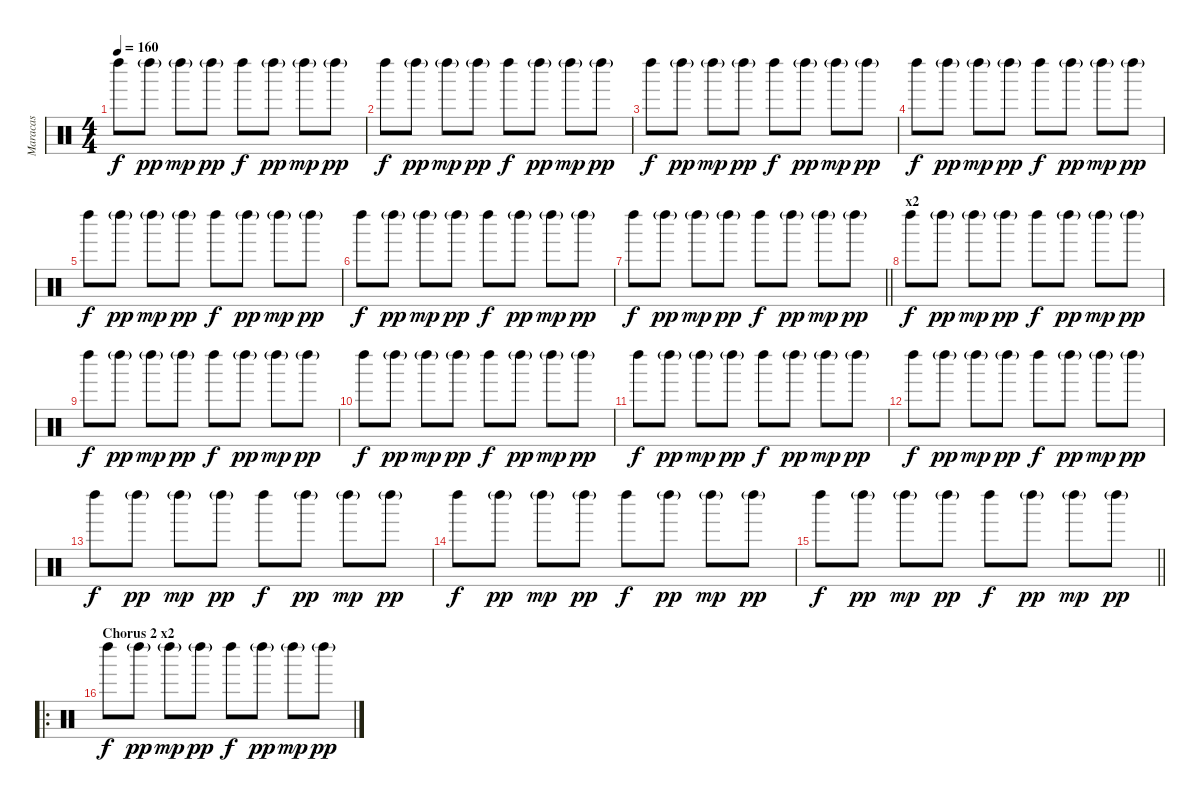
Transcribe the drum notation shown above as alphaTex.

\track ("Maracas" "Maracas") {instrument percussion}
\staff {score}
\articulation defaults
\ts (4 4)
\tempo 160
\clef neutral
\ks c "Left Maraca (hit)".8{dy f} "Left Maraca (hit)"{g}.8{dy pp} "Left Maraca (hit)"{g}.8{dy mp} "Left Maraca (hit)"{g}.8{dy pp} "Left Maraca (hit)".8{dy f} "Left Maraca (hit)"{g}.8{dy pp} "Left Maraca (hit)"{g}.8{dy mp} "Left Maraca (hit)"{g}.8{dy pp}
|
"Left Maraca (hit)".8{dy f} "Left Maraca (hit)"{g}.8{dy pp} "Left Maraca (hit)"{g}.8{dy mp} "Left Maraca (hit)"{g}.8{dy pp} "Left Maraca (hit)".8{dy f} "Left Maraca (hit)"{g}.8{dy pp} "Left Maraca (hit)"{g}.8{dy mp} "Left Maraca (hit)"{g}.8{dy pp} |
"Left Maraca (hit)".8{dy f} "Left Maraca (hit)"{g}.8{dy pp} "Left Maraca (hit)"{g}.8{dy mp} "Left Maraca (hit)"{g}.8{dy pp} "Left Maraca (hit)".8{dy f} "Left Maraca (hit)"{g}.8{dy pp} "Left Maraca (hit)"{g}.8{dy mp} "Left Maraca (hit)"{g}.8{dy pp} |
"Left Maraca (hit)".8{dy f} "Left Maraca (hit)"{g}.8{dy pp} "Left Maraca (hit)"{g}.8{dy mp} "Left Maraca (hit)"{g}.8{dy pp} "Left Maraca (hit)".8{dy f} "Left Maraca (hit)"{g}.8{dy pp} "Left Maraca (hit)"{g}.8{dy mp} "Left Maraca (hit)"{g}.8{dy pp} |
"Left Maraca (hit)".8{dy f} "Left Maraca (hit)"{g}.8{dy pp} "Left Maraca (hit)"{g}.8{dy mp} "Left Maraca (hit)"{g}.8{dy pp} "Left Maraca (hit)".8{dy f} "Left Maraca (hit)"{g}.8{dy pp} "Left Maraca (hit)"{g}.8{dy mp} "Left Maraca (hit)"{g}.8{dy pp} |
"Left Maraca (hit)".8{dy f} "Left Maraca (hit)"{g}.8{dy pp} "Left Maraca (hit)"{g}.8{dy mp} "Left Maraca (hit)"{g}.8{dy pp} "Left Maraca (hit)".8{dy f} "Left Maraca (hit)"{g}.8{dy pp} "Left Maraca (hit)"{g}.8{dy mp} "Left Maraca (hit)"{g}.8{dy pp} |
\barLineRight lightlight "Left Maraca (hit)".8{dy f} "Left Maraca (hit)"{g}.8{dy pp} "Left Maraca (hit)"{g}.8{dy mp} "Left Maraca (hit)"{g}.8{dy pp} "Left Maraca (hit)".8{dy f} "Left Maraca (hit)"{g}.8{dy pp} "Left Maraca (hit)"{g}.8{dy mp} "Left Maraca (hit)"{g}.8{dy pp}
|
\section ("" "x2")
"Left Maraca (hit)".8{dy f} "Left Maraca (hit)"{g}.8{dy pp} "Left Maraca (hit)"{g}.8{dy mp} "Left Maraca (hit)"{g}.8{dy pp} "Left Maraca (hit)".8{dy f} "Left Maraca (hit)"{g}.8{dy pp} "Left Maraca (hit)"{g}.8{dy mp} "Left Maraca (hit)"{g}.8{dy pp} |
"Left Maraca (hit)".8{dy f} "Left Maraca (hit)"{g}.8{dy pp} "Left Maraca (hit)"{g}.8{dy mp} "Left Maraca (hit)"{g}.8{dy pp} "Left Maraca (hit)".8{dy f} "Left Maraca (hit)"{g}.8{dy pp} "Left Maraca (hit)"{g}.8{dy mp} "Left Maraca (hit)"{g}.8{dy pp} |
"Left Maraca (hit)".8{dy f} "Left Maraca (hit)"{g}.8{dy pp} "Left Maraca (hit)"{g}.8{dy mp} "Left Maraca (hit)"{g}.8{dy pp} "Left Maraca (hit)".8{dy f} "Left Maraca (hit)"{g}.8{dy pp} "Left Maraca (hit)"{g}.8{dy mp} "Left Maraca (hit)"{g}.8{dy pp} |
"Left Maraca (hit)".8{dy f} "Left Maraca (hit)"{g}.8{dy pp} "Left Maraca (hit)"{g}.8{dy mp} "Left Maraca (hit)"{g}.8{dy pp} "Left Maraca (hit)".8{dy f} "Left Maraca (hit)"{g}.8{dy pp} "Left Maraca (hit)"{g}.8{dy mp} "Left Maraca (hit)"{g}.8{dy pp} |
"Left Maraca (hit)".8{dy f} "Left Maraca (hit)"{g}.8{dy pp} "Left Maraca (hit)"{g}.8{dy mp} "Left Maraca (hit)"{g}.8{dy pp} "Left Maraca (hit)".8{dy f} "Left Maraca (hit)"{g}.8{dy pp} "Left Maraca (hit)"{g}.8{dy mp} "Left Maraca (hit)"{g}.8{dy pp} |
"Left Maraca (hit)".8{dy f} "Left Maraca (hit)"{g}.8{dy pp} "Left Maraca (hit)"{g}.8{dy mp} "Left Maraca (hit)"{g}.8{dy pp} "Left Maraca (hit)".8{dy f} "Left Maraca (hit)"{g}.8{dy pp} "Left Maraca (hit)"{g}.8{dy mp} "Left Maraca (hit)"{g}.8{dy pp} |
"Left Maraca (hit)".8{dy f} "Left Maraca (hit)"{g}.8{dy pp} "Left Maraca (hit)"{g}.8{dy mp} "Left Maraca (hit)"{g}.8{dy pp} "Left Maraca (hit)".8{dy f} "Left Maraca (hit)"{g}.8{dy pp} "Left Maraca (hit)"{g}.8{dy mp} "Left Maraca (hit)"{g}.8{dy pp} |
\barLineRight lightlight "Left Maraca (hit)".8{dy f} "Left Maraca (hit)"{g}.8{dy pp} "Left Maraca (hit)"{g}.8{dy mp} "Left Maraca (hit)"{g}.8{dy pp} "Left Maraca (hit)".8{dy f} "Left Maraca (hit)"{g}.8{dy pp} "Left Maraca (hit)"{g}.8{dy mp} "Left Maraca (hit)"{g}.8{dy pp}
|
\ro
\section ("" "Chorus 2 x2")
"Left Maraca (hit)".8{dy f} "Left Maraca (hit)"{g}.8{dy pp} "Left Maraca (hit)"{g}.8{dy mp} "Left Maraca (hit)"{g}.8{dy pp} "Left Maraca (hit)".8{dy f} "Left Maraca (hit)"{g}.8{dy pp} "Left Maraca (hit)"{g}.8{dy mp} "Left Maraca (hit)"{g}.8{dy pp}
